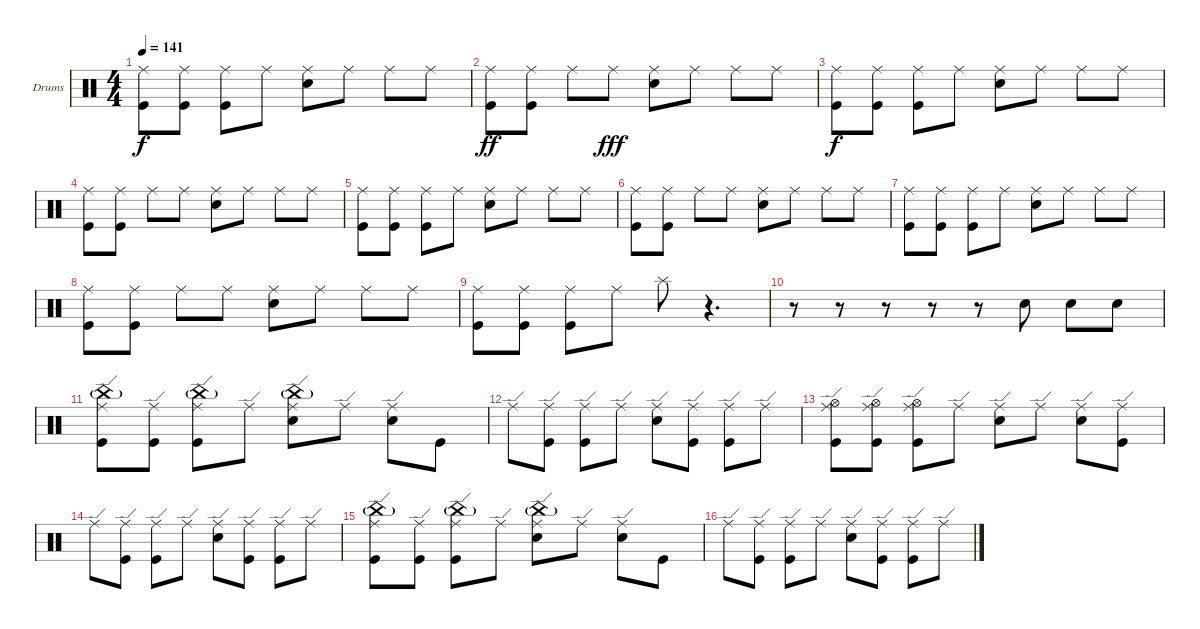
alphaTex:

\bracketExtendMode groupsimilarinstruments
\firstSystemTrackNameOrientation horizontal
\otherSystemsTrackNameOrientation horizontal
\track ("Drumkit" "Drums") {instrument percussion}
\staff {score}
\articulation defaults
\ts (4 4)
\tempo 141
\clef neutral
\ks c
("Ride (middle)" "Kick (hit)").8{dy f} ("Ride (middle)" "Kick (hit)").8 ("Ride (middle)" "Kick (hit)").8 "Ride (middle)".8 ("Ride (middle)" "Snare (hit) 2").8 "Ride (middle)".8 "Ride (middle)".8 "Ride (middle)".8 |
("Ride (middle)" "Kick (hit)").8{dy ff} ("Ride (middle)" "Kick (hit)").8 "Ride (middle)".8 "Ride (middle)".8{dy fff} ("Ride (middle)" "Snare (hit) 2").8 "Ride (middle)".8 "Ride (middle)".8 "Ride (middle)".8 |
("Ride (middle)" "Kick (hit)").8{dy f} ("Ride (middle)" "Kick (hit)").8 ("Ride (middle)" "Kick (hit)").8 "Ride (middle)".8 ("Ride (middle)" "Snare (hit) 2").8 "Ride (middle)".8 "Ride (middle)".8 "Ride (middle)".8 |
("Ride (middle)" "Kick (hit)").8 ("Ride (middle)" "Kick (hit)").8 "Ride (middle)".8 "Ride (middle)".8 ("Ride (middle)" "Snare (hit) 2").8 "Ride (middle)".8 "Ride (middle)".8 "Ride (middle)".8 |
("Ride (middle)" "Kick (hit)").8 ("Ride (middle)" "Kick (hit)").8 ("Ride (middle)" "Kick (hit)").8 "Ride (middle)".8 ("Ride (middle)" "Snare (hit) 2").8 "Ride (middle)".8 "Ride (middle)".8 "Ride (middle)".8 |
("Ride (middle)" "Kick (hit)").8 ("Ride (middle)" "Kick (hit)").8 "Ride (middle)".8 "Ride (middle)".8 ("Ride (middle)" "Snare (hit) 2").8 "Ride (middle)".8 "Ride (middle)".8 "Ride (middle)".8 |
("Ride (middle)" "Kick (hit)").8 ("Ride (middle)" "Kick (hit)").8 ("Ride (middle)" "Kick (hit)").8 "Ride (middle)".8 ("Ride (middle)" "Snare (hit) 2").8 "Ride (middle)".8 "Ride (middle)".8 "Ride (middle)".8 |
("Ride (middle)" "Kick (hit)").8 ("Ride (middle)" "Kick (hit)").8 "Ride (middle)".8 "Ride (middle)".8 ("Ride (middle)" "Snare (hit) 2").8 "Ride (middle)".8 "Ride (middle)".8 "Ride (middle)".8 |
("Ride (middle)" "Kick (hit)").8 ("Ride (middle)" "Kick (hit)").8 ("Ride (middle)" "Kick (hit)").8 "Ride (middle)".8 "Splash (hit)".8 r.4{d} |
r.8 r.8 r.8 r.8 r.8 "Snare (hit) 2".8 "Snare (hit) 2".8 "Snare (hit) 2".8 |
("Kick (hit)" "Ride (edge)" "China (hit)"{g}).8 ("Kick (hit)" "Ride (edge)").8 ("Kick (hit)" "Ride (edge)" "China (hit)"{g}).8 "Ride (edge)".8 ("Snare (hit) 2" "Ride (edge)" "China (hit)"{g}).8 "Ride (edge)".8 ("Ride (edge)" "Snare (hit) 2").8 "Kick (hit)".8 |
"Ride (edge)".8 ("Kick (hit)" "Ride (edge)").8 ("Ride (edge)" "Kick (hit)").8 "Ride (edge)".8 ("Ride (edge)" "Snare (hit) 2").8 ("Kick (hit)" "Ride (edge)").8 ("Ride (edge)" "Kick (hit)").8 "Ride (edge)".8 |
("Hi-Hat (open)" "Kick (hit)" "Ride (edge)").8 ("Hi-Hat (open)" "Kick (hit)" "Ride (edge)").8 ("Hi-Hat (open)" "Kick (hit)" "Ride (edge)").8 "Ride (edge)".8 ("Ride (edge)" "Snare (hit) 2").8 "Ride (edge)".8 ("Ride (edge)" "Snare (hit) 2").8 ("Ride (edge)" "Kick (hit)").8 |
"Ride (edge)".8 ("Kick (hit)" "Ride (edge)").8 ("Ride (edge)" "Kick (hit)").8 "Ride (edge)".8 ("Ride (edge)" "Snare (hit) 2").8 ("Kick (hit)" "Ride (edge)").8 ("Ride (edge)" "Kick (hit)").8 "Ride (edge)".8 |
("Kick (hit)" "Ride (edge)" "China (hit)"{g}).8 ("Kick (hit)" "Ride (edge)").8 ("Kick (hit)" "Ride (edge)" "China (hit)"{g}).8 "Ride (edge)".8 ("Snare (hit) 2" "Ride (edge)" "China (hit)"{g}).8 "Ride (edge)".8 ("Ride (edge)" "Snare (hit) 2").8 "Kick (hit)".8 |
"Ride (edge)".8 ("Kick (hit)" "Ride (edge)").8 ("Ride (edge)" "Kick (hit)").8 "Ride (edge)".8 ("Ride (edge)" "Snare (hit) 2").8 ("Kick (hit)" "Ride (edge)").8 ("Ride (edge)" "Kick (hit)").8 "Ride (edge)".8
